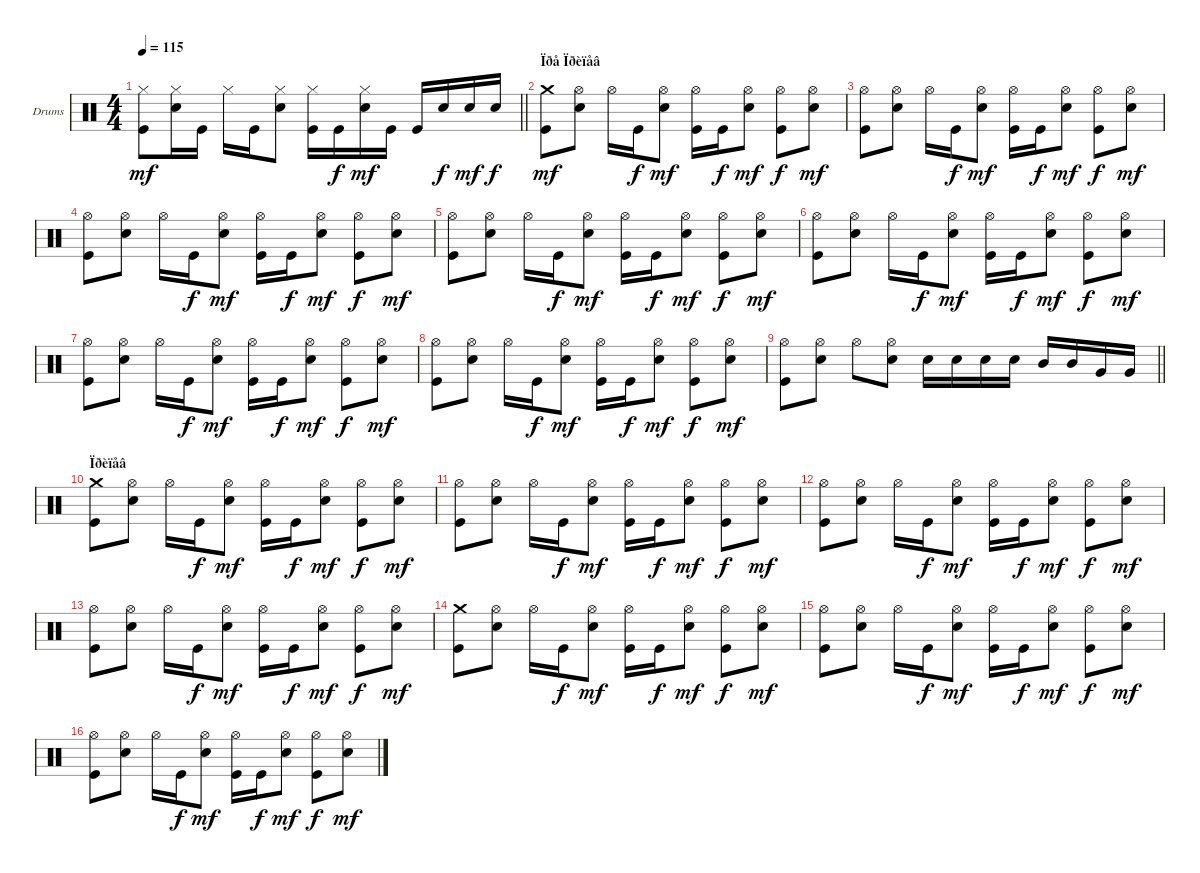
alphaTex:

\bracketExtendMode groupsimilarinstruments
\firstSystemTrackNameOrientation horizontal
\otherSystemsTrackNameOrientation horizontal
\track ("Drumkit" "Drums") {instrument percussion}
\staff {score}
\articulation defaults
\ts (4 4)
\tempo 115
\clef neutral
\barLineRight lightlight
\ks c
("Hi-Hat (closed)" "Kick (hit)").8{dy mf} ("Hi-Hat (closed)" "Snare (hit) 2").16 "Kick (hit)".16 "Hi-Hat (closed)".16 "Kick (hit)".16 ("Hi-Hat (closed)" "Snare (hit) 2").8 ("Hi-Hat (closed)" "Kick (hit)").16 "Kick (hit)".16{dy f} ("Hi-Hat (closed)" "Snare (hit) 2").16{dy mf} "Kick (hit)".16 "Kick (hit)".16 "Snare (hit) 2".16{dy f} "Snare (hit) 2".16{dy mf} "Snare (hit) 2".16{dy f} |
\section ("" "Ïðå Ïðèïåâ")
("Crash medium (hit)" "Kick (hit)").8{dy mf} ("Hi-Hat (open)" "Snare (hit) 2").8 "Hi-Hat (open)".16 "Kick (hit)".16{dy f} ("Hi-Hat (open)" "Snare (hit) 2").8{dy mf} ("Hi-Hat (open)" "Kick (hit)").16 "Kick (hit)".16{dy f} ("Hi-Hat (open)" "Snare (hit) 2").8{dy mf} ("Kick (hit)" "Hi-Hat (open)").8{dy f} ("Hi-Hat (open)" "Snare (hit) 2").8{dy mf} |
("Hi-Hat (open)" "Kick (hit)").8 ("Hi-Hat (open)" "Snare (hit) 2").8 "Hi-Hat (open)".16 "Kick (hit)".16{dy f} ("Hi-Hat (open)" "Snare (hit) 2").8{dy mf} ("Hi-Hat (open)" "Kick (hit)").16 "Kick (hit)".16{dy f} ("Hi-Hat (open)" "Snare (hit) 2").8{dy mf} ("Kick (hit)" "Hi-Hat (open)").8{dy f} ("Hi-Hat (open)" "Snare (hit) 2").8{dy mf} |
("Hi-Hat (open)" "Kick (hit)").8 ("Hi-Hat (open)" "Snare (hit) 2").8 "Hi-Hat (open)".16 "Kick (hit)".16{dy f} ("Hi-Hat (open)" "Snare (hit) 2").8{dy mf} ("Hi-Hat (open)" "Kick (hit)").16 "Kick (hit)".16{dy f} ("Hi-Hat (open)" "Snare (hit) 2").8{dy mf} ("Kick (hit)" "Hi-Hat (open)").8{dy f} ("Hi-Hat (open)" "Snare (hit) 2").8{dy mf} |
("Hi-Hat (open)" "Kick (hit)").8 ("Hi-Hat (open)" "Snare (hit) 2").8 "Hi-Hat (open)".16 "Kick (hit)".16{dy f} ("Hi-Hat (open)" "Snare (hit) 2").8{dy mf} ("Hi-Hat (open)" "Kick (hit)").16 "Kick (hit)".16{dy f} ("Hi-Hat (open)" "Snare (hit) 2").8{dy mf} ("Kick (hit)" "Hi-Hat (open)").8{dy f} ("Hi-Hat (open)" "Snare (hit) 2").8{dy mf} |
("Hi-Hat (open)" "Kick (hit)").8 ("Hi-Hat (open)" "Snare (hit) 2").8 "Hi-Hat (open)".16 "Kick (hit)".16{dy f} ("Hi-Hat (open)" "Snare (hit) 2").8{dy mf} ("Hi-Hat (open)" "Kick (hit)").16 "Kick (hit)".16{dy f} ("Hi-Hat (open)" "Snare (hit) 2").8{dy mf} ("Kick (hit)" "Hi-Hat (open)").8{dy f} ("Hi-Hat (open)" "Snare (hit) 2").8{dy mf} |
("Hi-Hat (open)" "Kick (hit)").8 ("Hi-Hat (open)" "Snare (hit) 2").8 "Hi-Hat (open)".16 "Kick (hit)".16{dy f} ("Hi-Hat (open)" "Snare (hit) 2").8{dy mf} ("Hi-Hat (open)" "Kick (hit)").16 "Kick (hit)".16{dy f} ("Hi-Hat (open)" "Snare (hit) 2").8{dy mf} ("Kick (hit)" "Hi-Hat (open)").8{dy f} ("Hi-Hat (open)" "Snare (hit) 2").8{dy mf} |
("Hi-Hat (open)" "Kick (hit)").8 ("Hi-Hat (open)" "Snare (hit) 2").8 "Hi-Hat (open)".16 "Kick (hit)".16{dy f} ("Hi-Hat (open)" "Snare (hit) 2").8{dy mf} ("Hi-Hat (open)" "Kick (hit)").16 "Kick (hit)".16{dy f} ("Hi-Hat (open)" "Snare (hit) 2").8{dy mf} ("Kick (hit)" "Hi-Hat (open)").8{dy f} ("Hi-Hat (open)" "Snare (hit) 2").8{dy mf} |
\barLineRight lightlight
("Hi-Hat (open)" "Kick (hit)").8 ("Hi-Hat (open)" "Snare (hit) 2").8 "Hi-Hat (open)".8 ("Hi-Hat (open)" "Snare (hit) 2").8 "Snare (hit) 2".16 "Snare (hit) 2".16 "Snare (hit) 2".16 "Snare (hit) 2".16 "Mid Tom (hit)".16 "Mid Tom (hit)".16 "Very Low Tom (hit)".16 "Very Low Tom (hit)".16 |
\section ("" "Ïðèïåâ")
("Crash medium (hit)" "Kick (hit)").8 ("Hi-Hat (open)" "Snare (hit) 2").8 "Hi-Hat (open)".16 "Kick (hit)".16{dy f} ("Hi-Hat (open)" "Snare (hit) 2").8{dy mf} ("Hi-Hat (open)" "Kick (hit)").16 "Kick (hit)".16{dy f} ("Hi-Hat (open)" "Snare (hit) 2").8{dy mf} ("Kick (hit)" "Hi-Hat (open)").8{dy f} ("Hi-Hat (open)" "Snare (hit) 2").8{dy mf} |
("Hi-Hat (open)" "Kick (hit)").8 ("Hi-Hat (open)" "Snare (hit) 2").8 "Hi-Hat (open)".16 "Kick (hit)".16{dy f} ("Hi-Hat (open)" "Snare (hit) 2").8{dy mf} ("Hi-Hat (open)" "Kick (hit)").16 "Kick (hit)".16{dy f} ("Hi-Hat (open)" "Snare (hit) 2").8{dy mf} ("Kick (hit)" "Hi-Hat (open)").8{dy f} ("Hi-Hat (open)" "Snare (hit) 2").8{dy mf} |
("Hi-Hat (open)" "Kick (hit)").8 ("Hi-Hat (open)" "Snare (hit) 2").8 "Hi-Hat (open)".16 "Kick (hit)".16{dy f} ("Hi-Hat (open)" "Snare (hit) 2").8{dy mf} ("Hi-Hat (open)" "Kick (hit)").16 "Kick (hit)".16{dy f} ("Hi-Hat (open)" "Snare (hit) 2").8{dy mf} ("Kick (hit)" "Hi-Hat (open)").8{dy f} ("Hi-Hat (open)" "Snare (hit) 2").8{dy mf} |
("Hi-Hat (open)" "Kick (hit)").8 ("Hi-Hat (open)" "Snare (hit) 2").8 "Hi-Hat (open)".16 "Kick (hit)".16{dy f} ("Hi-Hat (open)" "Snare (hit) 2").8{dy mf} ("Hi-Hat (open)" "Kick (hit)").16 "Kick (hit)".16{dy f} ("Hi-Hat (open)" "Snare (hit) 2").8{dy mf} ("Kick (hit)" "Hi-Hat (open)").8{dy f} ("Hi-Hat (open)" "Snare (hit) 2").8{dy mf} |
("Crash medium (hit)" "Kick (hit)").8 ("Hi-Hat (open)" "Snare (hit) 2").8 "Hi-Hat (open)".16 "Kick (hit)".16{dy f} ("Hi-Hat (open)" "Snare (hit) 2").8{dy mf} ("Hi-Hat (open)" "Kick (hit)").16 "Kick (hit)".16{dy f} ("Hi-Hat (open)" "Snare (hit) 2").8{dy mf} ("Kick (hit)" "Hi-Hat (open)").8{dy f} ("Hi-Hat (open)" "Snare (hit) 2").8{dy mf} |
("Hi-Hat (open)" "Kick (hit)").8 ("Hi-Hat (open)" "Snare (hit) 2").8 "Hi-Hat (open)".16 "Kick (hit)".16{dy f} ("Hi-Hat (open)" "Snare (hit) 2").8{dy mf} ("Hi-Hat (open)" "Kick (hit)").16 "Kick (hit)".16{dy f} ("Hi-Hat (open)" "Snare (hit) 2").8{dy mf} ("Kick (hit)" "Hi-Hat (open)").8{dy f} ("Hi-Hat (open)" "Snare (hit) 2").8{dy mf} |
("Hi-Hat (open)" "Kick (hit)").8 ("Hi-Hat (open)" "Snare (hit) 2").8 "Hi-Hat (open)".16 "Kick (hit)".16{dy f} ("Hi-Hat (open)" "Snare (hit) 2").8{dy mf} ("Hi-Hat (open)" "Kick (hit)").16 "Kick (hit)".16{dy f} ("Hi-Hat (open)" "Snare (hit) 2").8{dy mf} ("Kick (hit)" "Hi-Hat (open)").8{dy f} ("Hi-Hat (open)" "Snare (hit) 2").8{dy mf}
